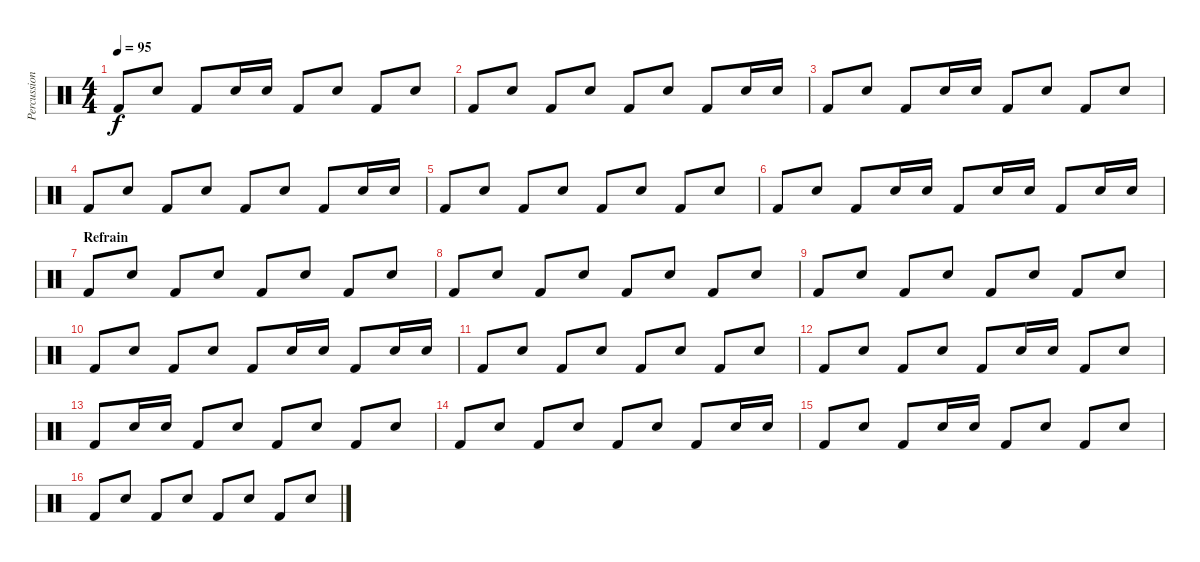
\track ("Percussions" "Percussion") {instrument percussion}
\staff {score}
\articulation defaults
\ts (4 4)
\tempo 95
\clef neutral
\ks c "Kick (hit) 2".8{dy f} "Snare (hit) 2".8 "Kick (hit) 2".8 "Snare (hit) 2".16 "Snare (hit) 2".16 "Kick (hit) 2".8 "Snare (hit) 2".8 "Kick (hit) 2".8 "Snare (hit) 2".8
|
"Kick (hit) 2".8 "Snare (hit) 2".8 "Kick (hit) 2".8 "Snare (hit) 2".8 "Kick (hit) 2".8 "Snare (hit) 2".8 "Kick (hit) 2".8 "Snare (hit) 2".16 "Snare (hit) 2".16 |
"Kick (hit) 2".8 "Snare (hit) 2".8 "Kick (hit) 2".8 "Snare (hit) 2".16 "Snare (hit) 2".16 "Kick (hit) 2".8 "Snare (hit) 2".8 "Kick (hit) 2".8 "Snare (hit) 2".8 |
"Kick (hit) 2".8 "Snare (hit) 2".8 "Kick (hit) 2".8 "Snare (hit) 2".8 "Kick (hit) 2".8 "Snare (hit) 2".8 "Kick (hit) 2".8 "Snare (hit) 2".16 "Snare (hit) 2".16 |
"Kick (hit) 2".8 "Snare (hit) 2".8 "Kick (hit) 2".8 "Snare (hit) 2".8 "Kick (hit) 2".8 "Snare (hit) 2".8 "Kick (hit) 2".8 "Snare (hit) 2".8 |
"Kick (hit) 2".8 "Snare (hit) 2".8 "Kick (hit) 2".8 "Snare (hit) 2".16 "Snare (hit) 2".16 "Kick (hit) 2".8 "Snare (hit) 2".16 "Snare (hit) 2".16 "Kick (hit) 2".8 "Snare (hit) 2".16 "Snare (hit) 2".16 |
\section ("" "Refrain")
"Kick (hit) 2".8 "Snare (hit) 2".8 "Kick (hit) 2".8 "Snare (hit) 2".8 "Kick (hit) 2".8 "Snare (hit) 2".8 "Kick (hit) 2".8 "Snare (hit) 2".8 |
"Kick (hit) 2".8 "Snare (hit) 2".8 "Kick (hit) 2".8 "Snare (hit) 2".8 "Kick (hit) 2".8 "Snare (hit) 2".8 "Kick (hit) 2".8 "Snare (hit) 2".8 |
"Kick (hit) 2".8 "Snare (hit) 2".8 "Kick (hit) 2".8 "Snare (hit) 2".8 "Kick (hit) 2".8 "Snare (hit) 2".8 "Kick (hit) 2".8 "Snare (hit) 2".8 |
"Kick (hit) 2".8 "Snare (hit) 2".8 "Kick (hit) 2".8 "Snare (hit) 2".8 "Kick (hit) 2".8 "Snare (hit) 2".16 "Snare (hit) 2".16 "Kick (hit) 2".8 "Snare (hit) 2".16 "Snare (hit) 2".16 |
"Kick (hit) 2".8 "Snare (hit) 2".8 "Kick (hit) 2".8 "Snare (hit) 2".8 "Kick (hit) 2".8 "Snare (hit) 2".8 "Kick (hit) 2".8 "Snare (hit) 2".8 |
"Kick (hit) 2".8 "Snare (hit) 2".8 "Kick (hit) 2".8 "Snare (hit) 2".8 "Kick (hit) 2".8 "Snare (hit) 2".16 "Snare (hit) 2".16 "Kick (hit) 2".8 "Snare (hit) 2".8 |
"Kick (hit) 2".8 "Snare (hit) 2".16 "Snare (hit) 2".16 "Kick (hit) 2".8 "Snare (hit) 2".8 "Kick (hit) 2".8 "Snare (hit) 2".8 "Kick (hit) 2".8 "Snare (hit) 2".8 |
"Kick (hit) 2".8 "Snare (hit) 2".8 "Kick (hit) 2".8 "Snare (hit) 2".8 "Kick (hit) 2".8 "Snare (hit) 2".8 "Kick (hit) 2".8 "Snare (hit) 2".16 "Snare (hit) 2".16 |
"Kick (hit) 2".8 "Snare (hit) 2".8 "Kick (hit) 2".8 "Snare (hit) 2".16 "Snare (hit) 2".16 "Kick (hit) 2".8 "Snare (hit) 2".8 "Kick (hit) 2".8 "Snare (hit) 2".8 |
"Kick (hit) 2".8 "Snare (hit) 2".8 "Kick (hit) 2".8 "Snare (hit) 2".8 "Kick (hit) 2".8 "Snare (hit) 2".8 "Kick (hit) 2".8 "Snare (hit) 2".8
